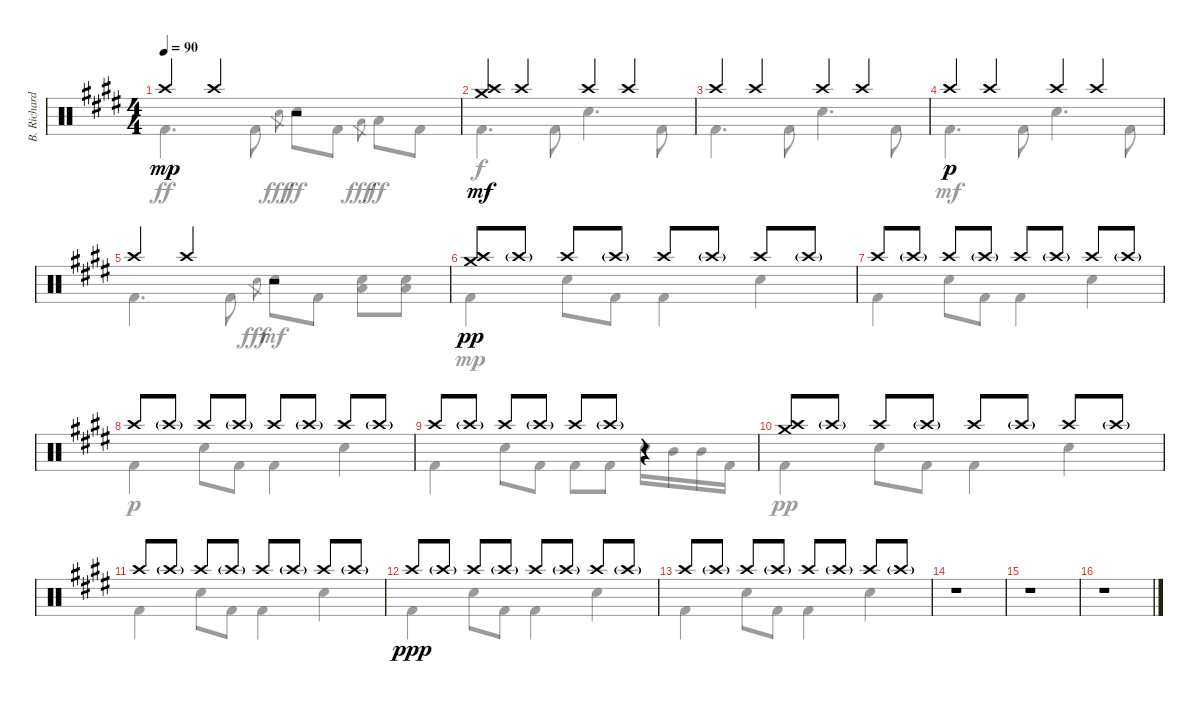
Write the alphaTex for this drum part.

\track ("B. Richardson Drums" "B. Richard") {instrument percussion}
\staff {score}
\articulation defaults
\voice
\ts (4 4)
\tempo 90
\clef neutral
\ks c#minor "Crash high (hit)".4{dy mp} "Crash high (hit)".4
r.2 |
("Crash high (hit)" "Crash medium (hit)").4{dy mf} "Crash high (hit)".4 "Crash high (hit)".4 "Crash high (hit)".4 |
"Crash high (hit)".4 "Crash high (hit)".4 "Crash high (hit)".4 "Crash high (hit)".4 |
"Crash high (hit)".4{dy p} "Crash high (hit)".4 "Crash high (hit)".4 "Crash high (hit)".4 |
"Crash high (hit)".4 "Crash high (hit)".4 r.2 |
("Crash high (hit)" "Crash medium (hit)").8{dy pp} "Crash high (hit)"{g}.8 "Crash high (hit)".8 "Crash high (hit)"{g}.8 "Crash high (hit)".8 "Crash high (hit)"{g}.8 "Crash high (hit)".8 "Crash high (hit)"{g}.8 |
"Crash high (hit)".8 "Crash high (hit)"{g}.8 "Crash high (hit)".8 "Crash high (hit)"{g}.8 "Crash high (hit)".8 "Crash high (hit)"{g}.8 "Crash high (hit)".8 "Crash high (hit)"{g}.8 |
"Crash high (hit)".8 "Crash high (hit)"{g}.8 "Crash high (hit)".8 "Crash high (hit)"{g}.8 "Crash high (hit)".8 "Crash high (hit)"{g}.8 "Crash high (hit)".8 "Crash high (hit)"{g}.8 |
"Crash high (hit)".8 "Crash high (hit)"{g}.8 "Crash high (hit)".8 "Crash high (hit)"{g}.8 "Crash high (hit)".8 "Crash high (hit)"{g}.8 r.4 |
("Crash high (hit)" "Crash medium (hit)").8 "Crash high (hit)"{g}.8 "Crash high (hit)".8 "Crash high (hit)"{g}.8 "Crash high (hit)".8 "Crash high (hit)"{g}.8 "Crash high (hit)".8 "Crash high (hit)"{g}.8 |
"Crash high (hit)".8 "Crash high (hit)"{g}.8 "Crash high (hit)".8 "Crash high (hit)"{g}.8 "Crash high (hit)".8 "Crash high (hit)"{g}.8 "Crash high (hit)".8 "Crash high (hit)"{g}.8 |
"Crash high (hit)".8{dy ppp} "Crash high (hit)"{g}.8 "Crash high (hit)".8 "Crash high (hit)"{g}.8 "Crash high (hit)".8 "Crash high (hit)"{g}.8 "Crash high (hit)".8 "Crash high (hit)"{g}.8 |
"Crash high (hit)".8 "Crash high (hit)"{g}.8 "Crash high (hit)".8 "Crash high (hit)"{g}.8 "Crash high (hit)".8 "Crash high (hit)"{g}.8 "Crash high (hit)".8 "Crash high (hit)"{g}.8 |
r.1 |
r.1 |
r.1
\voice
\clef neutral
\ottava regular
\simile none
\ks c#minor "Kick (hit) 2".4{d dy ff} "Kick (hit) 2".8 "Electric Snare (hit)".8{gr dy fff} "Electric Snare (hit)".8{dy ff} "Kick (hit) 2".8 "Low Tom (hit)".8{gr dy fff} "Low Tom (hit)".8{dy ff} "Kick (hit) 2".8
|
"Kick (hit) 2".4{d dy f} "Kick (hit) 2".8 "Electric Snare (hit)".4{d} "Kick (hit) 2".8 |
"Kick (hit) 2".4{d} "Kick (hit) 2".8 "Electric Snare (hit)".4{d} "Kick (hit) 2".8 |
"Kick (hit) 2".4{d dy mf} "Kick (hit) 2".8 "Electric Snare (hit)".4{d} "Kick (hit) 2".8 |
"Kick (hit) 2".4{d} "Kick (hit) 2".8 "Electric Snare (hit)".8{gr dy fff} "Electric Snare (hit)".8{dy mf} "Kick (hit) 2".8 ("Electric Snare (hit)" "Low Tom (hit)").8 ("Electric Snare (hit)" "Low Tom (hit)").8 |
"Kick (hit) 2".4{dy mp} "Electric Snare (hit)".8 "Kick (hit) 2".8 "Kick (hit) 2".4 "Electric Snare (hit)".4 |
"Kick (hit) 2".4 "Electric Snare (hit)".8 "Kick (hit) 2".8 "Kick (hit) 2".4 "Electric Snare (hit)".4 |
"Kick (hit) 2".4{dy p} "Electric Snare (hit)".8 "Kick (hit) 2".8 "Kick (hit) 2".4 "Electric Snare (hit)".4 |
"Kick (hit) 2".4 "Electric Snare (hit)".8 "Kick (hit) 2".8 "Kick (hit) 2".8 "Kick (hit) 2".8 "Electric Snare (hit)".16 "Mid Tom (hit)".16 "Mid Tom (hit)".16 "Kick (hit) 2".16 |
"Kick (hit) 2".4{dy pp} "Electric Snare (hit)".8 "Kick (hit) 2".8 "Kick (hit) 2".4 "Electric Snare (hit)".4 |
"Kick (hit) 2".4 "Electric Snare (hit)".8 "Kick (hit) 2".8 "Kick (hit) 2".4 "Electric Snare (hit)".4 |
"Kick (hit) 2".4{dy ppp} "Electric Snare (hit)".8 "Kick (hit) 2".8 "Kick (hit) 2".4 "Electric Snare (hit)".4 |
"Kick (hit) 2".4 "Electric Snare (hit)".8 "Kick (hit) 2".8 "Kick (hit) 2".4 "Electric Snare (hit)".4 |
r.1 |
r.1 |
r.1
